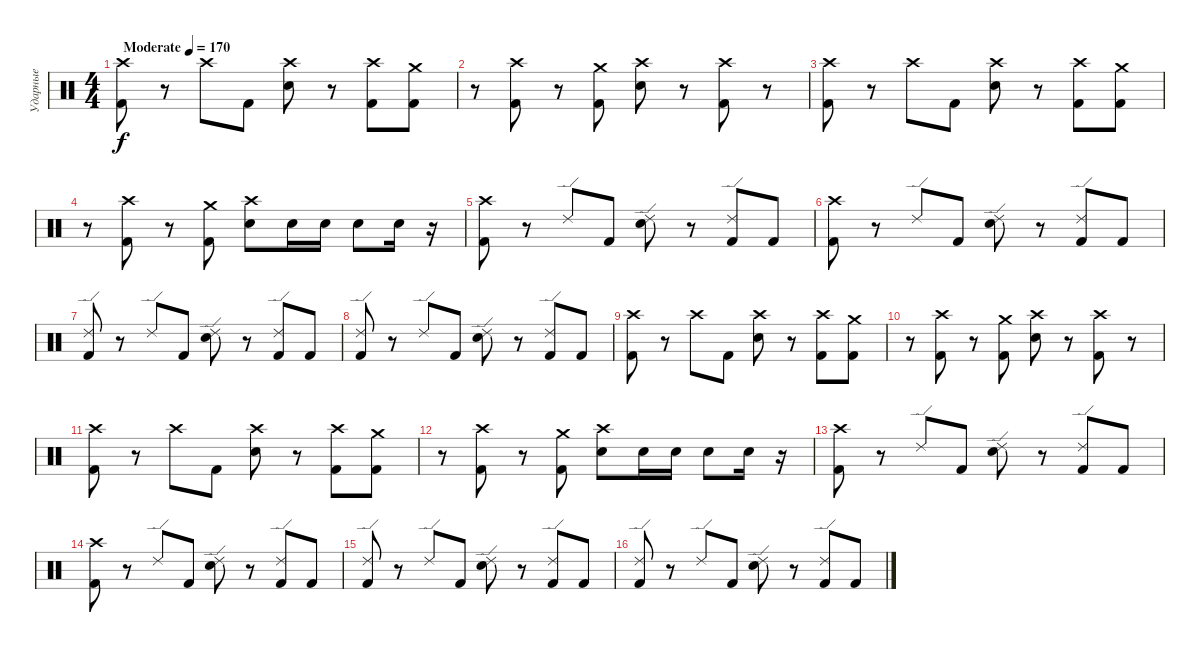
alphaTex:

\track ("Ударные" "Ударные") {instrument percussion}
\staff
\articulation defaults
\ts (4 4)
\tempo (170 "Moderate")
\clef neutral
\ks c
("Crash high (hit)" "Kick (hit) 2").8{dy f} r.8 "Crash high (hit)".8 "Kick (hit) 2".8 ("Crash high (hit)" "Electric Snare (hit)").8 r.8 ("Crash high (hit)" "Kick (hit) 2").8 ("Crash medium (hit)" "Kick (hit) 2").8 |
r.8 ("Crash high (hit)" "Kick (hit) 2").8 r.8 ("Crash medium (hit)" "Kick (hit) 2").8 ("Crash high (hit)" "Electric Snare (hit)").8 r.8 ("Crash high (hit)" "Kick (hit) 2").8 r.8 |
("Crash high (hit)" "Kick (hit) 2").8 r.8 "Crash high (hit)".8 "Kick (hit) 2".8 ("Crash high (hit)" "Electric Snare (hit)").8 r.8 ("Crash high (hit)" "Kick (hit) 2").8 ("Crash medium (hit)" "Kick (hit) 2").8 |
r.8 ("Crash high (hit)" "Kick (hit) 2").8 r.8 ("Crash medium (hit)" "Kick (hit) 2").8 ("Crash high (hit)" "Electric Snare (hit)").8 "Electric Snare (hit)".16 "Electric Snare (hit)".16 "Electric Snare (hit)".8 "Electric Snare (hit)".16 r.16 |
("Crash high (hit)" "Kick (hit) 2").8 r.8 "Ride (edge) 2".8 "Kick (hit) 2".8 ("Ride (edge) 2" "Electric Snare (hit)").8 r.8 ("Ride (edge) 2" "Kick (hit) 2").8 "Kick (hit) 2".8 |
("Crash high (hit)" "Kick (hit) 2").8 r.8 "Ride (edge) 2".8 "Kick (hit) 2".8 ("Ride (edge) 2" "Electric Snare (hit)").8 r.8 ("Ride (edge) 2" "Kick (hit) 2").8 "Kick (hit) 2".8 |
("Ride (edge) 2" "Kick (hit) 2").8 r.8 "Ride (edge) 2".8 "Kick (hit) 2".8 ("Ride (edge) 2" "Electric Snare (hit)").8 r.8 ("Ride (edge) 2" "Kick (hit) 2").8 "Kick (hit) 2".8 |
("Ride (edge) 2" "Kick (hit) 2").8 r.8 "Ride (edge) 2".8 "Kick (hit) 2".8 ("Ride (edge) 2" "Electric Snare (hit)").8 r.8 ("Ride (edge) 2" "Kick (hit) 2").8 "Kick (hit) 2".8 |
("Crash high (hit)" "Kick (hit) 2").8 r.8 "Crash high (hit)".8 "Kick (hit) 2".8 ("Crash high (hit)" "Electric Snare (hit)").8 r.8 ("Crash high (hit)" "Kick (hit) 2").8 ("Crash medium (hit)" "Kick (hit) 2").8 |
r.8 ("Crash high (hit)" "Kick (hit) 2").8 r.8 ("Crash medium (hit)" "Kick (hit) 2").8 ("Crash high (hit)" "Electric Snare (hit)").8 r.8 ("Crash high (hit)" "Kick (hit) 2").8 r.8 |
("Crash high (hit)" "Kick (hit) 2").8 r.8 "Crash high (hit)".8 "Kick (hit) 2".8 ("Crash high (hit)" "Electric Snare (hit)").8 r.8 ("Crash high (hit)" "Kick (hit) 2").8 ("Crash medium (hit)" "Kick (hit) 2").8 |
r.8 ("Crash high (hit)" "Kick (hit) 2").8 r.8 ("Crash medium (hit)" "Kick (hit) 2").8 ("Crash high (hit)" "Electric Snare (hit)").8 "Electric Snare (hit)".16 "Electric Snare (hit)".16 "Electric Snare (hit)".8 "Electric Snare (hit)".16 r.16 |
("Crash high (hit)" "Kick (hit) 2").8 r.8 "Ride (edge) 2".8 "Kick (hit) 2".8 ("Ride (edge) 2" "Electric Snare (hit)").8 r.8 ("Ride (edge) 2" "Kick (hit) 2").8 "Kick (hit) 2".8 |
("Crash high (hit)" "Kick (hit) 2").8 r.8 "Ride (edge) 2".8 "Kick (hit) 2".8 ("Ride (edge) 2" "Electric Snare (hit)").8 r.8 ("Ride (edge) 2" "Kick (hit) 2").8 "Kick (hit) 2".8 |
("Ride (edge) 2" "Kick (hit) 2").8 r.8 "Ride (edge) 2".8 "Kick (hit) 2".8 ("Ride (edge) 2" "Electric Snare (hit)").8 r.8 ("Ride (edge) 2" "Kick (hit) 2").8 "Kick (hit) 2".8 |
("Ride (edge) 2" "Kick (hit) 2").8 r.8 "Ride (edge) 2".8 "Kick (hit) 2".8 ("Ride (edge) 2" "Electric Snare (hit)").8 r.8 ("Ride (edge) 2" "Kick (hit) 2").8 "Kick (hit) 2".8
